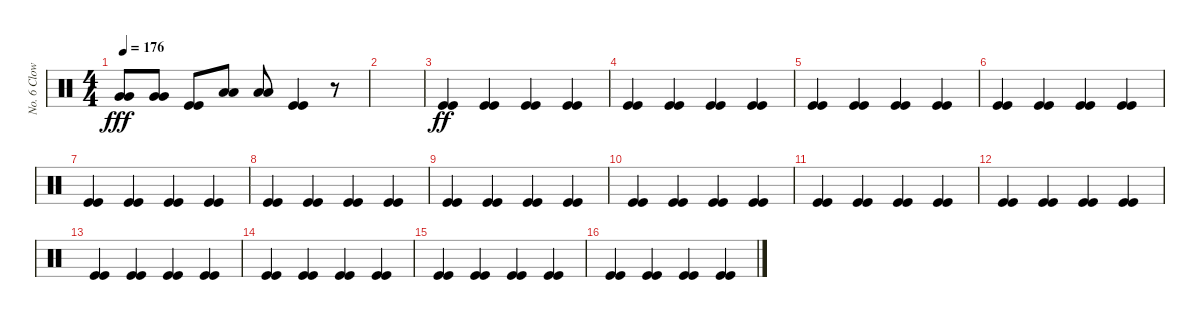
\track ("No. 6 Clown" "No. 6 Clow") {instrument percussion}
\staff {score}
\articulation defaults
\ts (4 4)
\tempo 176
\clef neutral
\ks c
("Very Low Tom (hit)" "Very Low Tom (hit)").8{dy fff} ("Very Low Tom (hit)" "Very Low Tom (hit)").8 ("Kick (hit)" "Kick (hit)").8 ("Low Floor Tom (hit)" "Low Floor Tom (hit)").8 ("Low Floor Tom (hit)" "Low Floor Tom (hit)").8 ("Kick (hit)" "Kick (hit)").4 r.8 |
|
("Kick (hit)" "Kick (hit)").4{dy ff} ("Kick (hit)" "Kick (hit)").4 ("Kick (hit)" "Kick (hit)").4 ("Kick (hit)" "Kick (hit)").4 |
("Kick (hit)" "Kick (hit)").4 ("Kick (hit)" "Kick (hit)").4 ("Kick (hit)" "Kick (hit)").4 ("Kick (hit)" "Kick (hit)").4 |
("Kick (hit)" "Kick (hit)").4 ("Kick (hit)" "Kick (hit)").4 ("Kick (hit)" "Kick (hit)").4 ("Kick (hit)" "Kick (hit)").4 |
("Kick (hit)" "Kick (hit)").4 ("Kick (hit)" "Kick (hit)").4 ("Kick (hit)" "Kick (hit)").4 ("Kick (hit)" "Kick (hit)").4 |
("Kick (hit)" "Kick (hit)").4 ("Kick (hit)" "Kick (hit)").4 ("Kick (hit)" "Kick (hit)").4 ("Kick (hit)" "Kick (hit)").4 |
("Kick (hit)" "Kick (hit)").4 ("Kick (hit)" "Kick (hit)").4 ("Kick (hit)" "Kick (hit)").4 ("Kick (hit)" "Kick (hit)").4 |
("Kick (hit)" "Kick (hit)").4 ("Kick (hit)" "Kick (hit)").4 ("Kick (hit)" "Kick (hit)").4 ("Kick (hit)" "Kick (hit)").4 |
("Kick (hit)" "Kick (hit)").4 ("Kick (hit)" "Kick (hit)").4 ("Kick (hit)" "Kick (hit)").4 ("Kick (hit)" "Kick (hit)").4 |
("Kick (hit)" "Kick (hit)").4 ("Kick (hit)" "Kick (hit)").4 ("Kick (hit)" "Kick (hit)").4 ("Kick (hit)" "Kick (hit)").4 |
("Kick (hit)" "Kick (hit)").4 ("Kick (hit)" "Kick (hit)").4 ("Kick (hit)" "Kick (hit)").4 ("Kick (hit)" "Kick (hit)").4 |
("Kick (hit)" "Kick (hit)").4 ("Kick (hit)" "Kick (hit)").4 ("Kick (hit)" "Kick (hit)").4 ("Kick (hit)" "Kick (hit)").4 |
("Kick (hit)" "Kick (hit)").4 ("Kick (hit)" "Kick (hit)").4 ("Kick (hit)" "Kick (hit)").4 ("Kick (hit)" "Kick (hit)").4 |
("Kick (hit)" "Kick (hit)").4 ("Kick (hit)" "Kick (hit)").4 ("Kick (hit)" "Kick (hit)").4 ("Kick (hit)" "Kick (hit)").4 |
("Kick (hit)" "Kick (hit)").4 ("Kick (hit)" "Kick (hit)").4 ("Kick (hit)" "Kick (hit)").4 ("Kick (hit)" "Kick (hit)").4
